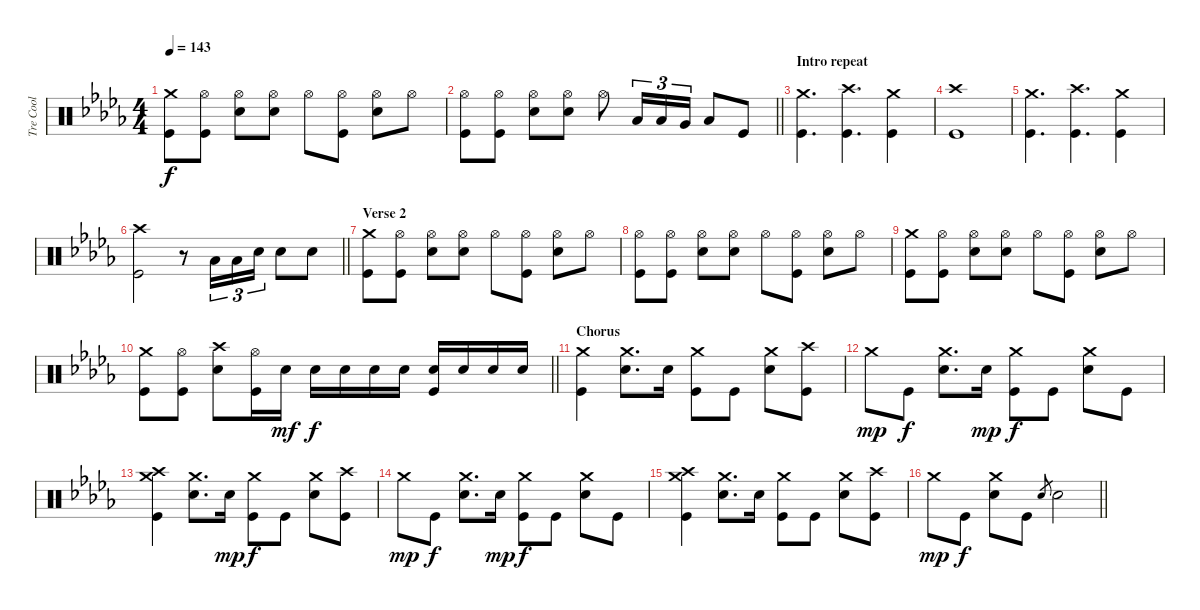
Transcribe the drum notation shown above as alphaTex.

\track ("Tre Cool" "Tre Cool") {instrument percussion}
\staff {score}
\articulation defaults
\ts (4 4)
\tempo 143
\clef neutral
\ks db
("Crash medium (hit)" "Kick (hit)").8{dy f} ("Hi-Hat (open)" "Kick (hit)").8 ("Hi-Hat (open)" "Electric Snare (hit)").8 ("Hi-Hat (open)" "Electric Snare (hit)").8 "Hi-Hat (open)".8 ("Hi-Hat (open)" "Kick (hit)").8 ("Hi-Hat (open)" "Electric Snare (hit)").8 "Hi-Hat (open)".8 |
\barLineRight lightlight
("Hi-Hat (open)" "Kick (hit)").8 ("Hi-Hat (open)" "Kick (hit)").8 ("Hi-Hat (open)" "Electric Snare (hit)").8 ("Hi-Hat (open)" "Electric Snare (hit)").8 "Hi-Hat (open)".8 "Low Tom (hit)".16{tu (3 2)} "Low Tom (hit)".16{tu (3 2)} "Very Low Tom (hit)".16{tu (3 2)} "Low Floor Tom (hit)".8 "Kick (hit)".8 |
\section ("" "Intro repeat")
("Crash medium (hit)" "Kick (hit)").4{d} ("Crash high (hit)" "Kick (hit)").4{d} ("Crash medium (hit)" "Kick (hit)").4 |
("Crash high (hit)" "Kick (hit)").1 |
("Crash medium (hit)" "Kick (hit)").4{d} ("Crash high (hit)" "Kick (hit)").4{d} ("Crash medium (hit)" "Kick (hit)").4 |
\barLineRight lightlight
("Crash high (hit)" "Kick (hit)").2 r.8 "Low Tom (hit)".16{tu (3 2)} "Low Tom (hit)".16{tu (3 2)} "Electric Snare (hit)".16{tu (3 2)} "Electric Snare (hit)".8 "Electric Snare (hit)".8 |
\section ("" "Verse 2")
("Crash medium (hit)" "Kick (hit)").8 ("Hi-Hat (open)" "Kick (hit)").8 ("Hi-Hat (open)" "Electric Snare (hit)").8 ("Hi-Hat (open)" "Electric Snare (hit)").8 "Hi-Hat (open)".8 ("Hi-Hat (open)" "Kick (hit)").8 ("Hi-Hat (open)" "Electric Snare (hit)").8 "Hi-Hat (open)".8 |
("Hi-Hat (open)" "Kick (hit)").8 ("Hi-Hat (open)" "Kick (hit)").8 ("Hi-Hat (open)" "Electric Snare (hit)").8 ("Hi-Hat (open)" "Electric Snare (hit)").8 "Hi-Hat (open)".8 ("Hi-Hat (open)" "Kick (hit)").8 ("Hi-Hat (open)" "Electric Snare (hit)").8 "Hi-Hat (open)".8 |
("Crash medium (hit)" "Kick (hit)").8 ("Hi-Hat (open)" "Kick (hit)").8 ("Hi-Hat (open)" "Electric Snare (hit)").8 ("Hi-Hat (open)" "Electric Snare (hit)").8 "Hi-Hat (open)".8 ("Hi-Hat (open)" "Kick (hit)").8 ("Hi-Hat (open)" "Electric Snare (hit)").8 "Hi-Hat (open)".8 |
\barLineRight lightlight
("Crash medium (hit)" "Kick (hit)").8 ("Hi-Hat (open)" "Kick (hit)").8 ("Crash high (hit)" "Electric Snare (hit)").8 ("Hi-Hat (open)" "Kick (hit)").16 "Electric Snare (hit)".16{dy mf} "Electric Snare (hit)".16{dy f} "Electric Snare (hit)".16 "Electric Snare (hit)".16 "Electric Snare (hit)".16 ("Electric Snare (hit)" "Kick (hit)").16 "Electric Snare (hit)".16 "Electric Snare (hit)".16 "Electric Snare (hit)".16 |
\section ("" "Chorus")
("Crash medium (hit)" "Kick (hit)").4 ("Crash medium (hit)" "Electric Snare (hit)").8{d} "Electric Snare (hit)".16 ("Crash medium (hit)" "Kick (hit)").8 "Kick (hit)".8 ("Crash medium (hit)" "Electric Snare (hit)").8 ("Crash high (hit)" "Kick (hit)").8 |
"Crash medium (hit)".8{dy mp} "Kick (hit)".8{dy f} ("Crash medium (hit)" "Electric Snare (hit)").8{d} "Electric Snare (hit)".16{dy mp} ("Crash medium (hit)" "Kick (hit)").8{dy f} "Kick (hit)".8 ("Crash medium (hit)" "Electric Snare (hit)").8 "Kick (hit)".8 |
("Crash medium (hit)" "Crash high (hit)" "Kick (hit)").4 ("Crash medium (hit)" "Electric Snare (hit)").8{d} "Electric Snare (hit)".16{dy mp} ("Crash medium (hit)" "Kick (hit)").8{dy f} "Kick (hit)".8 ("Crash medium (hit)" "Electric Snare (hit)").8 ("Crash high (hit)" "Kick (hit)").8 |
"Crash medium (hit)".8{dy mp} "Kick (hit)".8{dy f} ("Crash medium (hit)" "Electric Snare (hit)").8{d} "Electric Snare (hit)".16{dy mp} ("Crash medium (hit)" "Kick (hit)").8{dy f} "Kick (hit)".8 ("Crash medium (hit)" "Electric Snare (hit)").8 "Kick (hit)".8 |
("Crash medium (hit)" "Crash high (hit)" "Kick (hit)").4 ("Crash medium (hit)" "Electric Snare (hit)").8{d} "Electric Snare (hit)".16 ("Crash medium (hit)" "Kick (hit)").8 "Kick (hit)".8 ("Crash medium (hit)" "Electric Snare (hit)").8 ("Crash high (hit)" "Kick (hit)").8 |
\barLineRight lightlight "Crash medium (hit)".8{dy mp} "Kick (hit)".8{dy f}
("Crash medium (hit)" "Electric Snare (hit)").8 "Kick (hit)".8 "Electric Snare (hit)".8{gr} "Electric Snare (hit)".2
